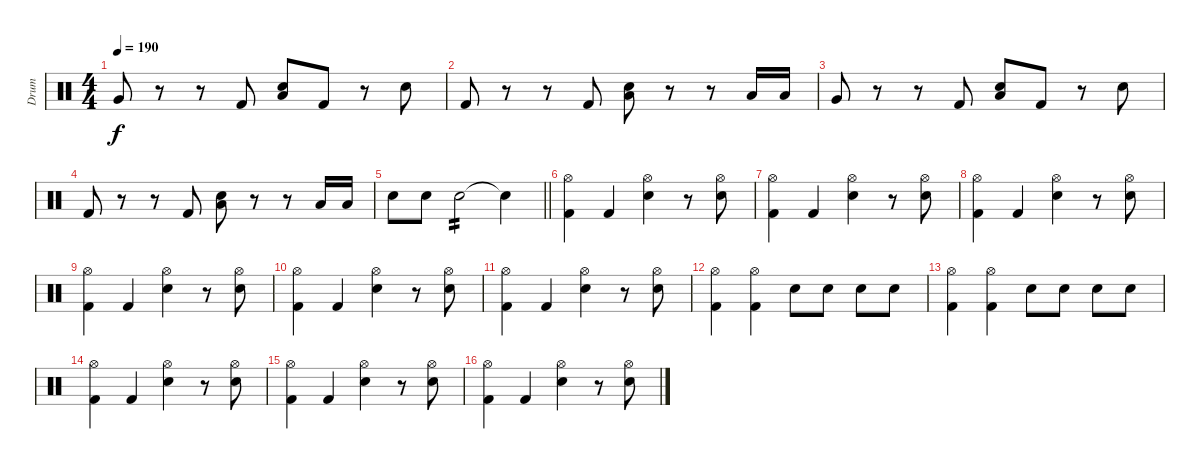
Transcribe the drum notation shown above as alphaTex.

\track ("Drum" "Drum") {instrument percussion}
\staff {score}
\articulation defaults
\ts (4 4)
\tempo 190
\clef neutral
\ks c "Very Low Tom (hit)".8{dy f}
r.8 r.8 "Kick (hit) 2".8 ("Snare (hit) 2" "Low Floor Tom (hit)").8 "Kick (hit) 2".8 r.8 "Snare (hit) 2".8 |
"Kick (hit) 2".8 r.8 r.8 "Kick (hit) 2".8 ("Snare (hit) 2" "Low Floor Tom (hit)").8 r.8 r.8 "Low Tom (hit)".16 "Low Tom (hit)".16 |
"Very Low Tom (hit)".8 r.8 r.8 "Kick (hit) 2".8 ("Snare (hit) 2" "Low Floor Tom (hit)").8 "Kick (hit) 2".8 r.8 "Snare (hit) 2".8 |
"Kick (hit) 2".8 r.8 r.8 "Kick (hit) 2".8 ("Snare (hit) 2" "Low Floor Tom (hit)").8 r.8 r.8 "Low Tom (hit)".16 "Low Tom (hit)".16 |
\barLineRight lightlight "Snare (hit) 2".8 "Snare (hit) 2".8 "Snare (hit) 2".2{tp 2} "Snare (hit)"{t}.4
|
\section ("" "")
("Kick (hit) 2" "Hi-Hat (open)").4 "Kick (hit) 2".4 ("Snare (hit) 2" "Hi-Hat (open)").4 r.8 ("Snare (hit) 2" "Hi-Hat (open)").8 |
("Kick (hit) 2" "Hi-Hat (open)").4 "Kick (hit) 2".4 ("Snare (hit) 2" "Hi-Hat (open)").4 r.8 ("Snare (hit) 2" "Hi-Hat (open)").8 |
("Kick (hit) 2" "Hi-Hat (open)").4 "Kick (hit) 2".4 ("Snare (hit) 2" "Hi-Hat (open)").4 r.8 ("Snare (hit) 2" "Hi-Hat (open)").8 |
("Kick (hit) 2" "Hi-Hat (open)").4 "Kick (hit) 2".4 ("Snare (hit) 2" "Hi-Hat (open)").4 r.8 ("Snare (hit) 2" "Hi-Hat (open)").8 |
("Kick (hit) 2" "Hi-Hat (open)").4 "Kick (hit) 2".4 ("Snare (hit) 2" "Hi-Hat (open)").4 r.8 ("Snare (hit) 2" "Hi-Hat (open)").8 |
("Kick (hit) 2" "Hi-Hat (open)").4 "Kick (hit) 2".4 ("Snare (hit) 2" "Hi-Hat (open)").4 r.8 ("Snare (hit) 2" "Hi-Hat (open)").8 |
("Kick (hit) 2" "Hi-Hat (open)").4 ("Kick (hit) 2" "Hi-Hat (open)").4 "Snare (hit) 2".8 "Snare (hit) 2".8 "Snare (hit) 2".8 "Snare (hit) 2".8 |
("Kick (hit) 2" "Hi-Hat (open)").4 ("Kick (hit) 2" "Hi-Hat (open)").4 "Snare (hit) 2".8 "Snare (hit) 2".8 "Snare (hit) 2".8 "Snare (hit) 2".8 |
("Kick (hit) 2" "Hi-Hat (open)").4 "Kick (hit) 2".4 ("Snare (hit) 2" "Hi-Hat (open)").4 r.8 ("Snare (hit) 2" "Hi-Hat (open)").8 |
("Kick (hit) 2" "Hi-Hat (open)").4 "Kick (hit) 2".4 ("Snare (hit) 2" "Hi-Hat (open)").4 r.8 ("Snare (hit) 2" "Hi-Hat (open)").8 |
("Kick (hit) 2" "Hi-Hat (open)").4 "Kick (hit) 2".4 ("Snare (hit) 2" "Hi-Hat (open)").4 r.8 ("Snare (hit) 2" "Hi-Hat (open)").8
